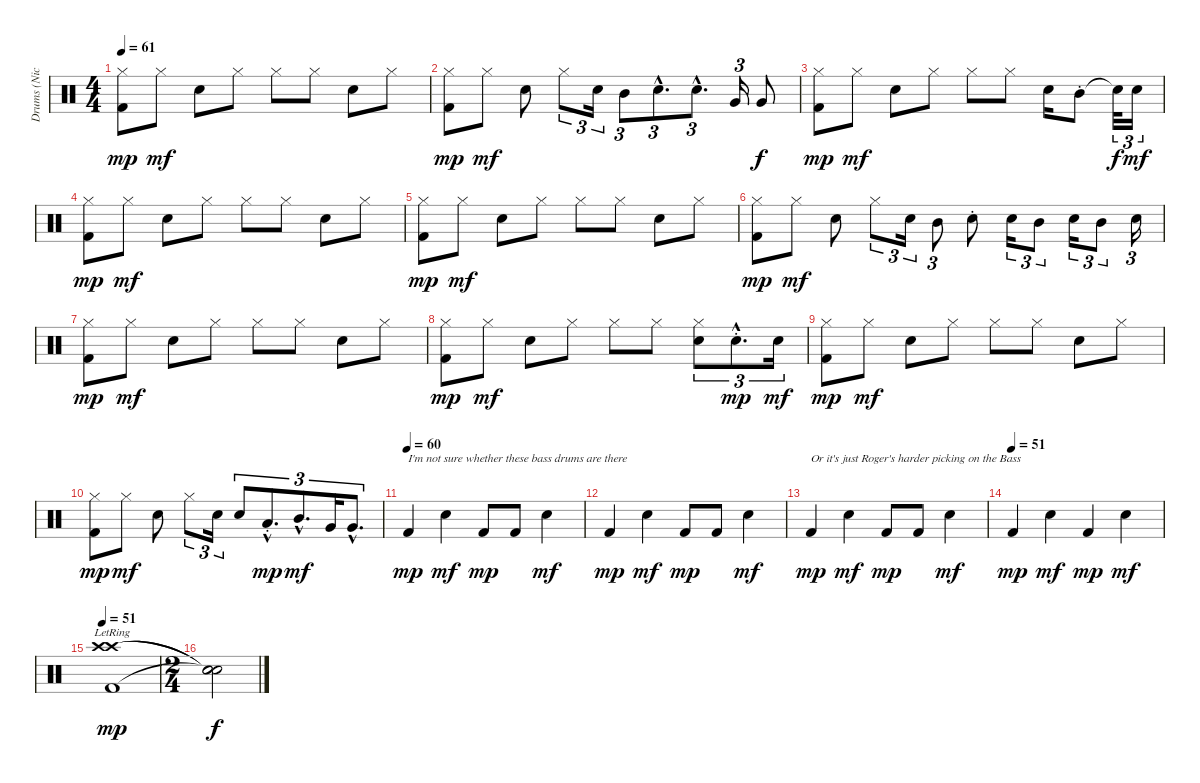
\track ("Drums (Nick)" "Drums (Nic") {instrument percussion}
\staff {score}
\articulation defaults
\ts (4 4)
\tempo 61
\clef neutral
\ks c
("Hi-Hat (closed)" "Kick (hit) 2").8{dy mp} "Hi-Hat (closed)".8{dy mf} "Snare (hit) 2".8 "Hi-Hat (closed)".8 "Hi-Hat (closed)".8 "Hi-Hat (closed)".8 "Snare (hit) 2".8 "Hi-Hat (closed)".8 |
("Hi-Hat (closed)" "Kick (hit) 2").8{dy mp} "Hi-Hat (closed)".8{dy mf} "Snare (hit) 2".8 "Hi-Hat (closed)".8{tu (3 2)} "Snare (hit) 2".16{tu (3 2)} "Mid Tom (hit)".8{tu (3 2)} "Snare (hit) 2"{hac}.8{d tu (3 2)} "Snare (hit) 2"{hac}.8{d tu (3 2)} "Very Low Tom (hit)".16{tu (3 2)} "Very Low Tom (hit)".8{dy f} |
("Hi-Hat (closed)" "Kick (hit) 2").8{dy mp} "Hi-Hat (closed)".8{dy mf} "Snare (hit) 2".8 "Hi-Hat (closed)".8 "Hi-Hat (closed)".8 "Hi-Hat (closed)".8 "Snare (hit) 2".16 "Mid Tom (hit)"{st}.8 "Snare (hit)"{t}.32{tu (3 2) dy f} "Snare (hit) 2".16{tu (3 2) dy mf} |
("Hi-Hat (closed)" "Kick (hit) 2").8{dy mp} "Hi-Hat (closed)".8{dy mf} "Snare (hit) 2".8 "Hi-Hat (closed)".8 "Hi-Hat (closed)".8 "Hi-Hat (closed)".8 "Snare (hit) 2".8 "Hi-Hat (closed)".8 |
("Hi-Hat (closed)" "Kick (hit) 2").8{dy mp} "Hi-Hat (closed)".8{dy mf} "Snare (hit) 2".8 "Hi-Hat (closed)".8 "Hi-Hat (closed)".8 "Hi-Hat (closed)".8 "Snare (hit) 2".8 "Hi-Hat (closed)".8 |
("Hi-Hat (closed)" "Kick (hit) 2").8{dy mp} "Hi-Hat (closed)".8{dy mf} "Snare (hit) 2".8 "Hi-Hat (closed)".8{tu (3 2)} "Snare (hit) 2".16{tu (3 2)} "Mid Tom (hit)".8{tu (3 2)} "Snare (hit) 2"{st}.8 "Snare (hit) 2".16{tu (3 2)} "Mid Tom (hit)".8{tu (3 2)} "Snare (hit) 2".16{tu (3 2)} "Mid Tom (hit)".8{tu (3 2)} "Snare (hit) 2".16{tu (3 2)} |
("Hi-Hat (closed)" "Kick (hit) 2").8{dy mp} "Hi-Hat (closed)".8{dy mf} "Snare (hit) 2".8 "Hi-Hat (closed)".8 "Hi-Hat (closed)".8 "Hi-Hat (closed)".8 "Snare (hit) 2".8 "Hi-Hat (closed)".8 |
("Hi-Hat (closed)" "Kick (hit) 2").8{dy mp} "Hi-Hat (closed)".8{dy mf} "Snare (hit) 2".8 "Hi-Hat (closed)".8 "Hi-Hat (closed)".8 "Hi-Hat (closed)".8 ("Snare (hit) 2" "Hi-Hat (closed)").8{tu (3 2)} "Snare (hit) 2"{hac st}.8{d tu (3 2) dy mp} "Snare (hit) 2".16{tu (3 2) dy mf} |
("Hi-Hat (closed)" "Kick (hit) 2").8{dy mp} "Hi-Hat (closed)".8{dy mf} "Snare (hit) 2".8 "Hi-Hat (closed)".8 "Hi-Hat (closed)".8 "Hi-Hat (closed)".8 "Snare (hit) 2".8 "Hi-Hat (closed)".8 |
("Hi-Hat (closed)" "Kick (hit) 2").8{dy mp} "Hi-Hat (closed)".8{dy mf} "Snare (hit) 2".8 "Hi-Hat (closed)".8{tu (3 2)} "Snare (hit) 2".16{tu (3 2)} "Snare (hit) 2".8{tu (3 2)} "Low Tom (hit)"{hac st}.8{d tu (3 2) dy mp} "Mid Tom (hit)"{hac}.8{d tu (3 2) dy mf} "Very Low Tom (hit)".16{tu (3 2)} "Very Low Tom (hit)"{hac}.8{d tu (3 2)} |
\tempo (60)
"Kick (hit) 2".4{txt "I'm not sure whether these bass drums are there" dy mp} "Snare (hit) 2".4{dy mf} "Kick (hit) 2".8{dy mp} "Kick (hit) 2".8 "Snare (hit) 2".4{dy mf} |
"Kick (hit) 2".4{dy mp} "Snare (hit) 2".4{dy mf} "Kick (hit) 2".8{dy mp} "Kick (hit) 2".8 "Snare (hit) 2".4{dy mf} |
"Kick (hit) 2".4{txt "Or it's just Roger's harder picking on the Bass" dy mp} "Snare (hit) 2".4{dy mf} "Kick (hit) 2".8{dy mp} "Kick (hit) 2".8 "Snare (hit) 2".4{dy mf} |
\tempo (51)
"Kick (hit) 2".4{dy mp} "Snare (hit) 2".4{dy mf} "Kick (hit) 2".4{dy mp} "Snare (hit) 2".4{dy mf} |
\tempo 51
("Crash high (hit)"{lr} "Crash high (hit)" "Kick (hit) 2").1{dy mp} |
\ts (2 4)
("Snare (hit)"{t} "Snare (hit)"{t} "Snare (hit)"{t}).2{dy f}
